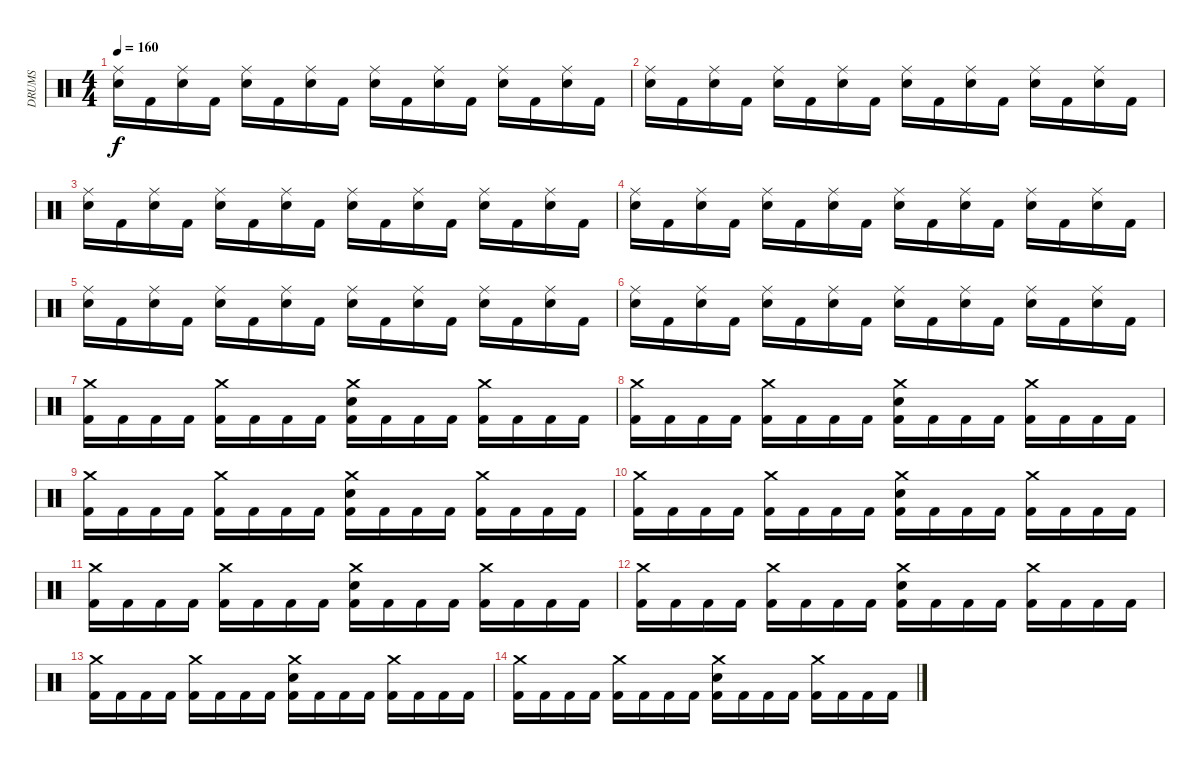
\track ("DRUMS" "DRUMS") {instrument percussion}
\staff {score}
\articulation defaults
\ts (4 4)
\tempo 160
\clef neutral
\ks c
("Ride (middle)" "Electric Snare (hit)").16{dy f} "Kick (hit) 2".16 ("Ride (middle)" "Electric Snare (hit)").16 "Kick (hit) 2".16 ("Ride (middle)" "Electric Snare (hit)").16 "Kick (hit) 2".16 ("Ride (middle)" "Electric Snare (hit)").16 "Kick (hit) 2".16 ("Ride (middle)" "Electric Snare (hit)").16 "Kick (hit) 2".16 ("Ride (middle)" "Electric Snare (hit)").16 "Kick (hit) 2".16 ("Ride (middle)" "Electric Snare (hit)").16 "Kick (hit) 2".16 ("Ride (middle)" "Electric Snare (hit)").16 "Kick (hit) 2".16 |
("Ride (middle)" "Electric Snare (hit)").16 "Kick (hit) 2".16 ("Ride (middle)" "Electric Snare (hit)").16 "Kick (hit) 2".16 ("Ride (middle)" "Electric Snare (hit)").16 "Kick (hit) 2".16 ("Ride (middle)" "Electric Snare (hit)").16 "Kick (hit) 2".16 ("Ride (middle)" "Electric Snare (hit)").16 "Kick (hit) 2".16 ("Ride (middle)" "Electric Snare (hit)").16 "Kick (hit) 2".16 ("Ride (middle)" "Electric Snare (hit)").16 "Kick (hit) 2".16 ("Ride (middle)" "Electric Snare (hit)").16 "Kick (hit) 2".16 |
("Ride (middle)" "Electric Snare (hit)").16 "Kick (hit) 2".16 ("Ride (middle)" "Electric Snare (hit)").16 "Kick (hit) 2".16 ("Ride (middle)" "Electric Snare (hit)").16 "Kick (hit) 2".16 ("Ride (middle)" "Electric Snare (hit)").16 "Kick (hit) 2".16 ("Ride (middle)" "Electric Snare (hit)").16 "Kick (hit) 2".16 ("Ride (middle)" "Electric Snare (hit)").16 "Kick (hit) 2".16 ("Ride (middle)" "Electric Snare (hit)").16 "Kick (hit) 2".16 ("Ride (middle)" "Electric Snare (hit)").16 "Kick (hit) 2".16 |
("Ride (middle)" "Electric Snare (hit)").16 "Kick (hit) 2".16 ("Ride (middle)" "Electric Snare (hit)").16 "Kick (hit) 2".16 ("Ride (middle)" "Electric Snare (hit)").16 "Kick (hit) 2".16 ("Ride (middle)" "Electric Snare (hit)").16 "Kick (hit) 2".16 ("Ride (middle)" "Electric Snare (hit)").16 "Kick (hit) 2".16 ("Ride (middle)" "Electric Snare (hit)").16 "Kick (hit) 2".16 ("Ride (middle)" "Electric Snare (hit)").16 "Kick (hit) 2".16 ("Ride (middle)" "Electric Snare (hit)").16 "Kick (hit) 2".16 |
("Ride (middle)" "Electric Snare (hit)").16 "Kick (hit) 2".16 ("Ride (middle)" "Electric Snare (hit)").16 "Kick (hit) 2".16 ("Ride (middle)" "Electric Snare (hit)").16 "Kick (hit) 2".16 ("Ride (middle)" "Electric Snare (hit)").16 "Kick (hit) 2".16 ("Ride (middle)" "Electric Snare (hit)").16 "Kick (hit) 2".16 ("Ride (middle)" "Electric Snare (hit)").16 "Kick (hit) 2".16 ("Ride (middle)" "Electric Snare (hit)").16 "Kick (hit) 2".16 ("Ride (middle)" "Electric Snare (hit)").16 "Kick (hit) 2".16 |
("Ride (middle)" "Electric Snare (hit)").16 "Kick (hit) 2".16 ("Ride (middle)" "Electric Snare (hit)").16 "Kick (hit) 2".16 ("Ride (middle)" "Electric Snare (hit)").16 "Kick (hit) 2".16 ("Ride (middle)" "Electric Snare (hit)").16 "Kick (hit) 2".16 ("Ride (middle)" "Electric Snare (hit)").16 "Kick (hit) 2".16 ("Ride (middle)" "Electric Snare (hit)").16 "Kick (hit) 2".16 ("Ride (middle)" "Electric Snare (hit)").16 "Kick (hit) 2".16 ("Ride (middle)" "Electric Snare (hit)").16 "Kick (hit) 2".16 |
("Crash medium (hit)" "Kick (hit) 2").16 "Kick (hit) 2".16 "Kick (hit) 2".16 "Kick (hit) 2".16 ("Crash medium (hit)" "Kick (hit) 2").16 "Kick (hit) 2".16 "Kick (hit) 2".16 "Kick (hit) 2".16 ("Crash medium (hit)" "Electric Snare (hit)" "Kick (hit) 2").16 "Kick (hit) 2".16 "Kick (hit) 2".16 "Kick (hit) 2".16 ("Crash medium (hit)" "Kick (hit) 2").16 "Kick (hit) 2".16 "Kick (hit) 2".16 "Kick (hit) 2".16 |
("Crash medium (hit)" "Kick (hit) 2").16 "Kick (hit) 2".16 "Kick (hit) 2".16 "Kick (hit) 2".16 ("Crash medium (hit)" "Kick (hit) 2").16 "Kick (hit) 2".16 "Kick (hit) 2".16 "Kick (hit) 2".16 ("Crash medium (hit)" "Electric Snare (hit)" "Kick (hit) 2").16 "Kick (hit) 2".16 "Kick (hit) 2".16 "Kick (hit) 2".16 ("Crash medium (hit)" "Kick (hit) 2").16 "Kick (hit) 2".16 "Kick (hit) 2".16 "Kick (hit) 2".16 |
("Crash medium (hit)" "Kick (hit) 2").16 "Kick (hit) 2".16 "Kick (hit) 2".16 "Kick (hit) 2".16 ("Crash medium (hit)" "Kick (hit) 2").16 "Kick (hit) 2".16 "Kick (hit) 2".16 "Kick (hit) 2".16 ("Crash medium (hit)" "Electric Snare (hit)" "Kick (hit) 2").16 "Kick (hit) 2".16 "Kick (hit) 2".16 "Kick (hit) 2".16 ("Crash medium (hit)" "Kick (hit) 2").16 "Kick (hit) 2".16 "Kick (hit) 2".16 "Kick (hit) 2".16 |
("Crash medium (hit)" "Kick (hit) 2").16 "Kick (hit) 2".16 "Kick (hit) 2".16 "Kick (hit) 2".16 ("Crash medium (hit)" "Kick (hit) 2").16 "Kick (hit) 2".16 "Kick (hit) 2".16 "Kick (hit) 2".16 ("Crash medium (hit)" "Electric Snare (hit)" "Kick (hit) 2").16 "Kick (hit) 2".16 "Kick (hit) 2".16 "Kick (hit) 2".16 ("Crash medium (hit)" "Kick (hit) 2").16 "Kick (hit) 2".16 "Kick (hit) 2".16 "Kick (hit) 2".16 |
("Crash medium (hit)" "Kick (hit) 2").16 "Kick (hit) 2".16 "Kick (hit) 2".16 "Kick (hit) 2".16 ("Crash medium (hit)" "Kick (hit) 2").16 "Kick (hit) 2".16 "Kick (hit) 2".16 "Kick (hit) 2".16 ("Crash medium (hit)" "Electric Snare (hit)" "Kick (hit) 2").16 "Kick (hit) 2".16 "Kick (hit) 2".16 "Kick (hit) 2".16 ("Crash medium (hit)" "Kick (hit) 2").16 "Kick (hit) 2".16 "Kick (hit) 2".16 "Kick (hit) 2".16 |
("Crash medium (hit)" "Kick (hit) 2").16 "Kick (hit) 2".16 "Kick (hit) 2".16 "Kick (hit) 2".16 ("Crash medium (hit)" "Kick (hit) 2").16 "Kick (hit) 2".16 "Kick (hit) 2".16 "Kick (hit) 2".16 ("Crash medium (hit)" "Electric Snare (hit)" "Kick (hit) 2").16 "Kick (hit) 2".16 "Kick (hit) 2".16 "Kick (hit) 2".16 ("Crash medium (hit)" "Kick (hit) 2").16 "Kick (hit) 2".16 "Kick (hit) 2".16 "Kick (hit) 2".16 |
("Crash medium (hit)" "Kick (hit) 2").16 "Kick (hit) 2".16 "Kick (hit) 2".16 "Kick (hit) 2".16 ("Crash medium (hit)" "Kick (hit) 2").16 "Kick (hit) 2".16 "Kick (hit) 2".16 "Kick (hit) 2".16 ("Crash medium (hit)" "Electric Snare (hit)" "Kick (hit) 2").16 "Kick (hit) 2".16 "Kick (hit) 2".16 "Kick (hit) 2".16 ("Crash medium (hit)" "Kick (hit) 2").16 "Kick (hit) 2".16 "Kick (hit) 2".16 "Kick (hit) 2".16 |
("Crash medium (hit)" "Kick (hit) 2").16 "Kick (hit) 2".16 "Kick (hit) 2".16 "Kick (hit) 2".16 ("Crash medium (hit)" "Kick (hit) 2").16 "Kick (hit) 2".16 "Kick (hit) 2".16 "Kick (hit) 2".16 ("Crash medium (hit)" "Electric Snare (hit)" "Kick (hit) 2").16 "Kick (hit) 2".16 "Kick (hit) 2".16 "Kick (hit) 2".16 ("Crash medium (hit)" "Kick (hit) 2").16 "Kick (hit) 2".16 "Kick (hit) 2".16 "Kick (hit) 2".16
